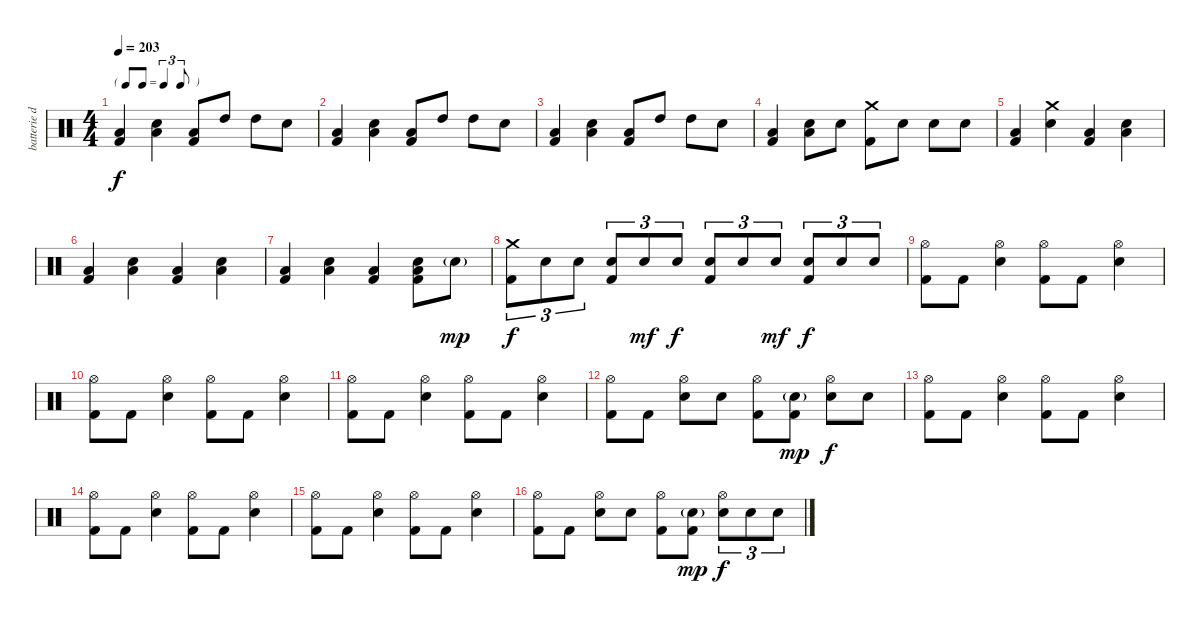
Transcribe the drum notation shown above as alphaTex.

\track ("batterie dub" "batterie d") {instrument percussion}
\staff {score}
\articulation defaults
\ts (4 4)
\tf triplet8th
\tempo 203
\clef neutral
\ks c
("Low Tom (hit)" "Kick (hit) 2").4{dy f} ("Low Tom (hit)" "Electric Snare (hit)").4 ("Low Tom (hit)" "Kick (hit) 2").8 "High Tom (hit)".8 "High Tom (hit)".8 "Electric Snare (hit)".8 |
("Low Tom (hit)" "Kick (hit) 2").4 ("Low Tom (hit)" "Electric Snare (hit)").4 ("Low Tom (hit)" "Kick (hit) 2").8 "High Tom (hit)".8 "High Tom (hit)".8 "Electric Snare (hit)".8 |
("Low Tom (hit)" "Kick (hit) 2").4 ("Low Tom (hit)" "Electric Snare (hit)").4 ("Low Tom (hit)" "Kick (hit) 2").8 "High Tom (hit)".8 "High Tom (hit)".8 "Electric Snare (hit)".8 |
("Low Tom (hit)" "Kick (hit) 2").4 ("Low Tom (hit)" "Electric Snare (hit)").8 "Electric Snare (hit)".8 ("Crash medium (hit)" "Kick (hit) 2").8 "Electric Snare (hit)".8 "Electric Snare (hit)".8 "Electric Snare (hit)".8 |
("Low Tom (hit)" "Kick (hit) 2").4 ("Crash medium (hit)" "Electric Snare (hit)").4 ("Low Tom (hit)" "Kick (hit) 2").4 ("Low Tom (hit)" "Electric Snare (hit)").4 |
("Low Tom (hit)" "Kick (hit) 2").4 ("Low Tom (hit)" "Electric Snare (hit)").4 ("Low Tom (hit)" "Kick (hit) 2").4 ("Low Tom (hit)" "Electric Snare (hit)").4 |
("Low Tom (hit)" "Kick (hit) 2").4 ("Low Tom (hit)" "Electric Snare (hit)").4 ("Low Tom (hit)" "Kick (hit) 2").4 ("Low Tom (hit)" "Electric Snare (hit)" "Kick (hit) 2").8 "Electric Snare (hit)"{g}.8{dy mp} |
("Crash medium (hit)" "Kick (hit) 2").8{tu (3 2) dy f} "Electric Snare (hit)".8{tu (3 2)} "Electric Snare (hit)".8{tu (3 2)} ("Electric Snare (hit)" "Kick (hit) 2").8{tu (3 2)} "Electric Snare (hit)".8{tu (3 2) dy mf} "Electric Snare (hit)".8{tu (3 2) dy f} ("Electric Snare (hit)" "Kick (hit) 2").8{tu (3 2)} "Electric Snare (hit)".8{tu (3 2)} "Electric Snare (hit)".8{tu (3 2) dy mf} ("Electric Snare (hit)" "Kick (hit) 2").8{tu (3 2) dy f} "Electric Snare (hit)".8{tu (3 2)} "Electric Snare (hit)".8{tu (3 2)} |
("Hi-Hat (open)" "Kick (hit) 2").8 "Kick (hit) 2".8 ("Hi-Hat (open)" "Electric Snare (hit)").4 ("Hi-Hat (open)" "Kick (hit) 2").8 "Kick (hit) 2".8 ("Hi-Hat (open)" "Electric Snare (hit)").4 |
("Hi-Hat (open)" "Kick (hit) 2").8 "Kick (hit) 2".8 ("Hi-Hat (open)" "Electric Snare (hit)").4 ("Hi-Hat (open)" "Kick (hit) 2").8 "Kick (hit) 2".8 ("Hi-Hat (open)" "Electric Snare (hit)").4 |
("Hi-Hat (open)" "Kick (hit) 2").8 "Kick (hit) 2".8 ("Hi-Hat (open)" "Electric Snare (hit)").4 ("Hi-Hat (open)" "Kick (hit) 2").8 "Kick (hit) 2".8 ("Hi-Hat (open)" "Electric Snare (hit)").4 |
("Hi-Hat (open)" "Kick (hit) 2").8 "Kick (hit) 2".8 ("Hi-Hat (open)" "Electric Snare (hit)").8 "Electric Snare (hit)".8 ("Hi-Hat (open)" "Kick (hit) 2").8 ("Electric Snare (hit)"{g} "Kick (hit) 2").8{dy mp} ("Hi-Hat (open)" "Electric Snare (hit)").8{dy f} "Electric Snare (hit)".8 |
("Hi-Hat (open)" "Kick (hit) 2").8 "Kick (hit) 2".8 ("Hi-Hat (open)" "Electric Snare (hit)").4 ("Hi-Hat (open)" "Kick (hit) 2").8 "Kick (hit) 2".8 ("Hi-Hat (open)" "Electric Snare (hit)").4 |
("Hi-Hat (open)" "Kick (hit) 2").8 "Kick (hit) 2".8 ("Hi-Hat (open)" "Electric Snare (hit)").4 ("Hi-Hat (open)" "Kick (hit) 2").8 "Kick (hit) 2".8 ("Hi-Hat (open)" "Electric Snare (hit)").4 |
("Hi-Hat (open)" "Kick (hit) 2").8 "Kick (hit) 2".8 ("Hi-Hat (open)" "Electric Snare (hit)").4 ("Hi-Hat (open)" "Kick (hit) 2").8 "Kick (hit) 2".8 ("Hi-Hat (open)" "Electric Snare (hit)").4 |
("Hi-Hat (open)" "Kick (hit) 2").8 "Kick (hit) 2".8 ("Hi-Hat (open)" "Electric Snare (hit)").8 "Electric Snare (hit)".8 ("Hi-Hat (open)" "Kick (hit) 2").8 ("Electric Snare (hit)"{g} "Kick (hit) 2").8{dy mp} ("Hi-Hat (open)" "Electric Snare (hit)").8{tu (3 2) dy f} "Electric Snare (hit)".8{tu (3 2)} "Electric Snare (hit)".8{tu (3 2)}
